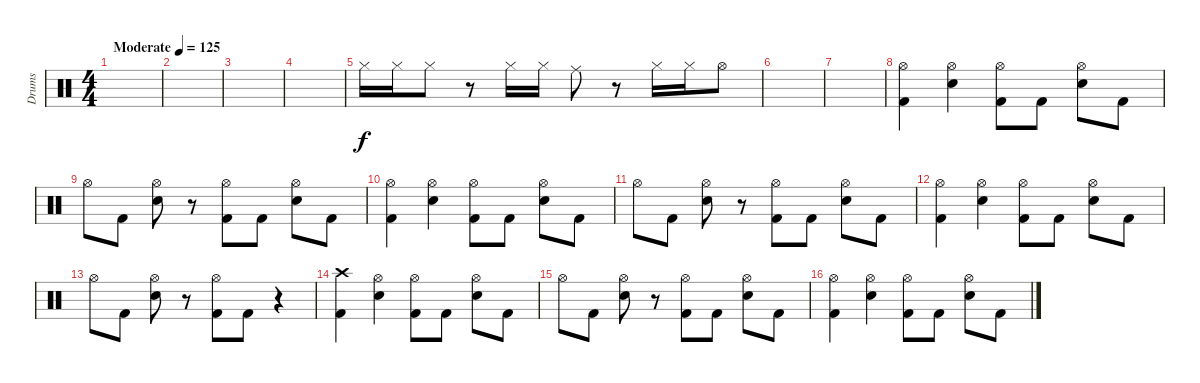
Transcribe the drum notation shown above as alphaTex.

\track ("Drums" "Drums") {instrument percussion}
\staff {score}
\articulation defaults
\ts (4 4)
\tempo (125 "Moderate")
\clef neutral
\ks c
|
|
|
|
"Hi-Hat (closed)".16 "Hi-Hat (closed)".16 "Hi-Hat (closed)".8 r.8 "Hi-Hat (closed)".16 "Hi-Hat (closed)".16 "Ride (middle)".8 r.8 "Hi-Hat (closed)".16 "Hi-Hat (closed)".16 "Hi-Hat (open)".8 |
|
|
("Hi-Hat (open)" "Kick (hit) 2").4 ("Hi-Hat (open)" "Electric Snare (hit)").4 ("Hi-Hat (open)" "Kick (hit) 2").8 "Kick (hit) 2".8 ("Hi-Hat (open)" "Electric Snare (hit)").8 "Kick (hit) 2".8 |
"Hi-Hat (open)".8 "Kick (hit) 2".8 ("Hi-Hat (open)" "Electric Snare (hit)").8 r.8 ("Hi-Hat (open)" "Kick (hit) 2").8 "Kick (hit) 2".8 ("Hi-Hat (open)" "Electric Snare (hit)").8 "Kick (hit) 2".8 |
("Hi-Hat (open)" "Kick (hit) 2").4 ("Hi-Hat (open)" "Electric Snare (hit)").4 ("Hi-Hat (open)" "Kick (hit) 2").8 "Kick (hit) 2".8 ("Hi-Hat (open)" "Electric Snare (hit)").8 "Kick (hit) 2".8 |
"Hi-Hat (open)".8 "Kick (hit) 2".8 ("Hi-Hat (open)" "Electric Snare (hit)").8 r.8 ("Hi-Hat (open)" "Kick (hit) 2").8 "Kick (hit) 2".8 ("Hi-Hat (open)" "Electric Snare (hit)").8 "Kick (hit) 2".8 |
("Hi-Hat (open)" "Kick (hit) 2").4 ("Hi-Hat (open)" "Electric Snare (hit)").4 ("Hi-Hat (open)" "Kick (hit) 2").8 "Kick (hit) 2".8 ("Hi-Hat (open)" "Electric Snare (hit)").8 "Kick (hit) 2".8 |
"Hi-Hat (open)".8 "Kick (hit) 2".8 ("Hi-Hat (open)" "Electric Snare (hit)").8 r.8 ("Hi-Hat (open)" "Kick (hit) 2").8 "Kick (hit) 2".8 r.4 |
("Crash high (hit)" "Kick (hit) 2").4 ("Hi-Hat (open)" "Electric Snare (hit)").4 ("Hi-Hat (open)" "Kick (hit) 2").8 "Kick (hit) 2".8 ("Hi-Hat (open)" "Electric Snare (hit)").8 "Kick (hit) 2".8 |
"Hi-Hat (open)".8 "Kick (hit) 2".8 ("Hi-Hat (open)" "Electric Snare (hit)").8 r.8 ("Hi-Hat (open)" "Kick (hit) 2").8 "Kick (hit) 2".8 ("Hi-Hat (open)" "Electric Snare (hit)").8 "Kick (hit) 2".8 |
("Hi-Hat (open)" "Kick (hit) 2").4 ("Hi-Hat (open)" "Electric Snare (hit)").4 ("Hi-Hat (open)" "Kick (hit) 2").8 "Kick (hit) 2".8 ("Hi-Hat (open)" "Electric Snare (hit)").8 "Kick (hit) 2".8
